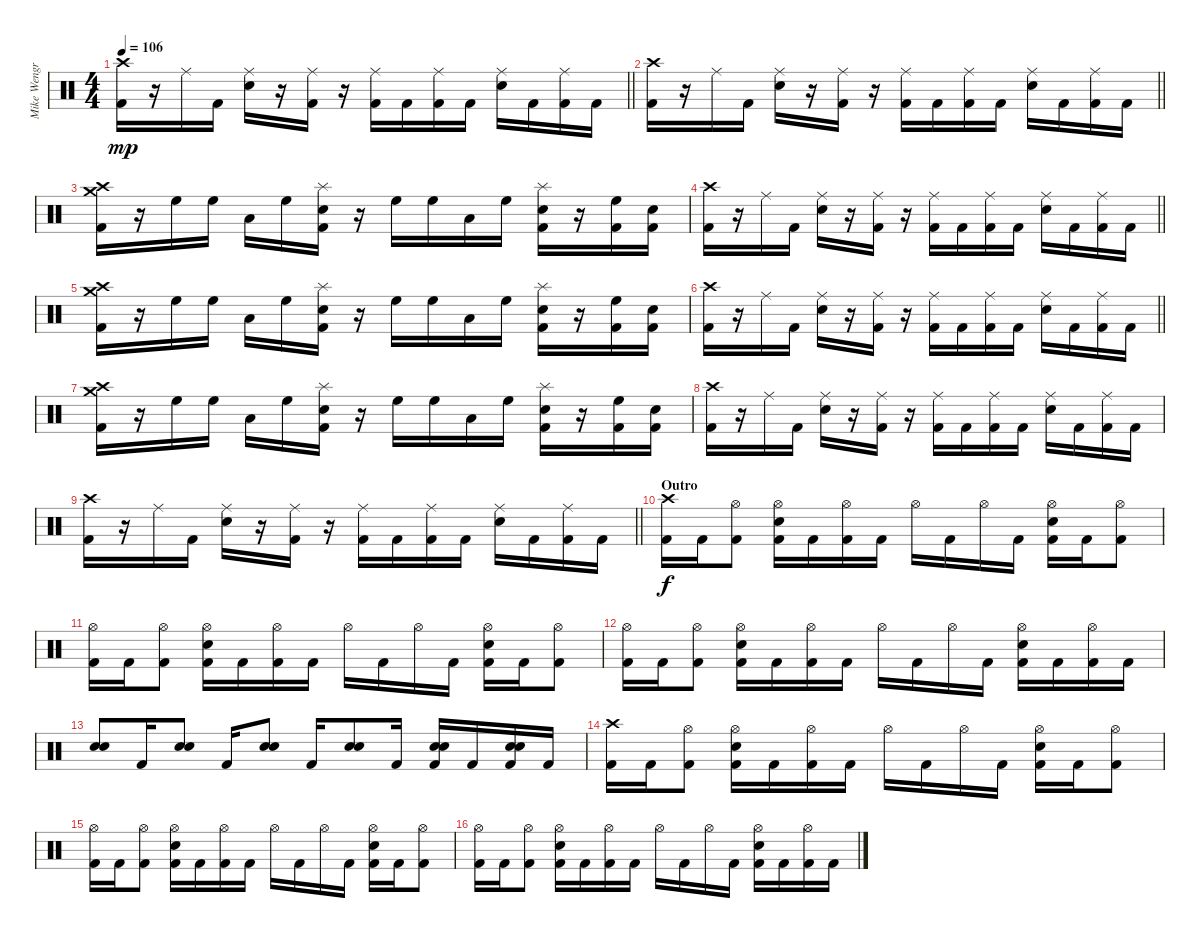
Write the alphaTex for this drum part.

\track ("Mike Wengren" "Mike Wengr") {instrument percussion}
\staff {score}
\articulation defaults
\ts (4 4)
\tempo 106
\clef neutral
\barLineRight lightlight
\ks c
("Crash high (hit)" "Kick (hit) 2").16{dy mp} r.16 "Ride (middle)".16 "Kick (hit) 2".16 ("Ride (middle)" "Snare (hit) 2").16 r.16 ("Ride (middle)" "Kick (hit) 2").16 r.16 ("Ride (middle)" "Kick (hit) 2").16 "Kick (hit) 2".16 ("Ride (middle)" "Kick (hit) 2").16 "Kick (hit) 2".16 ("Ride (middle)" "Snare (hit) 2").16 "Kick (hit) 2".16 ("Ride (middle)" "Kick (hit) 2").16 "Kick (hit) 2".16 |
\barLineRight lightlight
("Crash high (hit)" "Kick (hit) 2").16 r.16 "Ride (middle)".16 "Kick (hit) 2".16 ("Ride (middle)" "Snare (hit) 2").16 r.16 ("Ride (middle)" "Kick (hit) 2").16 r.16 ("Ride (middle)" "Kick (hit) 2").16 "Kick (hit) 2".16 ("Ride (middle)" "Kick (hit) 2").16 "Kick (hit) 2".16 ("Ride (middle)" "Snare (hit) 2").16 "Kick (hit) 2".16 ("Ride (middle)" "Kick (hit) 2").16 "Kick (hit) 2".16 |
("Crash high (hit)" "Crash medium (hit)" "Kick (hit) 2").16 r.16 "High Floor Tom (hit)".16 "High Floor Tom (hit)".16 "Low Tom (hit)".16 "High Floor Tom (hit)".16 ("Snare (hit) 2" "Splash (hit)" "Kick (hit) 2").16 r.16 "High Floor Tom (hit)".16 "High Floor Tom (hit)".16 "Low Tom (hit)".16 "High Floor Tom (hit)".16 ("Snare (hit) 2" "Splash (hit)" "Kick (hit) 2").16 r.16 ("High Floor Tom (hit)" "Kick (hit) 2").16 ("Snare (hit) 2" "Kick (hit) 2").16 |
\barLineRight lightlight
("Crash high (hit)" "Kick (hit) 2").16 r.16 "Ride (middle)".16 "Kick (hit) 2".16 ("Ride (middle)" "Snare (hit) 2").16 r.16 ("Ride (middle)" "Kick (hit) 2").16 r.16 ("Ride (middle)" "Kick (hit) 2").16 "Kick (hit) 2".16 ("Ride (middle)" "Kick (hit) 2").16 "Kick (hit) 2".16 ("Ride (middle)" "Snare (hit) 2").16 "Kick (hit) 2".16 ("Ride (middle)" "Kick (hit) 2").16 "Kick (hit) 2".16 |
("Crash high (hit)" "Crash medium (hit)" "Kick (hit) 2").16 r.16 "High Floor Tom (hit)".16 "High Floor Tom (hit)".16 "Low Tom (hit)".16 "High Floor Tom (hit)".16 ("Snare (hit) 2" "Splash (hit)" "Kick (hit) 2").16 r.16 "High Floor Tom (hit)".16 "High Floor Tom (hit)".16 "Low Tom (hit)".16 "High Floor Tom (hit)".16 ("Snare (hit) 2" "Splash (hit)" "Kick (hit) 2").16 r.16 ("High Floor Tom (hit)" "Kick (hit) 2").16 ("Snare (hit) 2" "Kick (hit) 2").16 |
\barLineRight lightlight
("Crash high (hit)" "Kick (hit) 2").16 r.16 "Ride (middle)".16 "Kick (hit) 2".16 ("Ride (middle)" "Snare (hit) 2").16 r.16 ("Ride (middle)" "Kick (hit) 2").16 r.16 ("Ride (middle)" "Kick (hit) 2").16 "Kick (hit) 2".16 ("Ride (middle)" "Kick (hit) 2").16 "Kick (hit) 2".16 ("Ride (middle)" "Snare (hit) 2").16 "Kick (hit) 2".16 ("Ride (middle)" "Kick (hit) 2").16 "Kick (hit) 2".16 |
("Crash high (hit)" "Crash medium (hit)" "Kick (hit) 2").16 r.16 "High Floor Tom (hit)".16 "High Floor Tom (hit)".16 "Low Tom (hit)".16 "High Floor Tom (hit)".16 ("Snare (hit) 2" "Splash (hit)" "Kick (hit) 2").16 r.16 "High Floor Tom (hit)".16 "High Floor Tom (hit)".16 "Low Tom (hit)".16 "High Floor Tom (hit)".16 ("Snare (hit) 2" "Splash (hit)" "Kick (hit) 2").16 r.16 ("High Floor Tom (hit)" "Kick (hit) 2").16 ("Snare (hit) 2" "Kick (hit) 2").16 |
("Crash high (hit)" "Kick (hit) 2").16 r.16 "Ride (middle)".16 "Kick (hit) 2".16 ("Ride (middle)" "Snare (hit) 2").16 r.16 ("Ride (middle)" "Kick (hit) 2").16 r.16 ("Ride (middle)" "Kick (hit) 2").16 "Kick (hit) 2".16 ("Ride (middle)" "Kick (hit) 2").16 "Kick (hit) 2".16 ("Ride (middle)" "Snare (hit) 2").16 "Kick (hit) 2".16 ("Ride (middle)" "Kick (hit) 2").16 "Kick (hit) 2".16 |
\barLineRight lightlight
("Crash high (hit)" "Kick (hit) 2").16 r.16 "Ride (middle)".16 "Kick (hit) 2".16 ("Ride (middle)" "Snare (hit) 2").16 r.16 ("Ride (middle)" "Kick (hit) 2").16 r.16 ("Ride (middle)" "Kick (hit) 2").16 "Kick (hit) 2".16 ("Ride (middle)" "Kick (hit) 2").16 "Kick (hit) 2".16 ("Ride (middle)" "Snare (hit) 2").16 "Kick (hit) 2".16 ("Ride (middle)" "Kick (hit) 2").16 "Kick (hit) 2".16 |
\section ("" "Outro")
("Crash high (hit)" "Kick (hit) 2").16{dy f} "Kick (hit) 2".16 ("Hi-Hat (open)" "Kick (hit) 2").8 ("Hi-Hat (open)" "Snare (hit) 2" "Kick (hit) 2").16 "Kick (hit) 2".16 ("Hi-Hat (open)" "Kick (hit) 2").16 "Kick (hit) 2".16 "Hi-Hat (open)".16 "Kick (hit) 2".16 "Hi-Hat (open)".16 "Kick (hit) 2".16 ("Hi-Hat (open)" "Snare (hit) 2" "Kick (hit) 2").16 "Kick (hit) 2".16 ("Hi-Hat (open)" "Kick (hit) 2").8 |
("Hi-Hat (open)" "Kick (hit) 2").16 "Kick (hit) 2".16 ("Hi-Hat (open)" "Kick (hit) 2").8 ("Hi-Hat (open)" "Snare (hit) 2" "Kick (hit) 2").16 "Kick (hit) 2".16 ("Hi-Hat (open)" "Kick (hit) 2").16 "Kick (hit) 2".16 "Hi-Hat (open)".16 "Kick (hit) 2".16 "Hi-Hat (open)".16 "Kick (hit) 2".16 ("Hi-Hat (open)" "Snare (hit) 2" "Kick (hit) 2").16 "Kick (hit) 2".16 ("Hi-Hat (open)" "Kick (hit) 2").8 |
("Hi-Hat (open)" "Kick (hit) 2").16 "Kick (hit) 2".16 ("Hi-Hat (open)" "Kick (hit) 2").8 ("Hi-Hat (open)" "Snare (hit) 2" "Kick (hit) 2").16 "Kick (hit) 2".16 ("Hi-Hat (open)" "Kick (hit) 2").16 "Kick (hit) 2".16 "Hi-Hat (open)".16 "Kick (hit) 2".16 "Hi-Hat (open)".16 "Kick (hit) 2".16 ("Hi-Hat (open)" "Snare (hit) 2" "Kick (hit) 2").16 "Kick (hit) 2".16 ("Hi-Hat (open)" "Kick (hit) 2").16 "Kick (hit) 2".16 |
("Snare (hit) 2" "Snare (hit) 2").8 "Kick (hit) 2".16 ("Snare (hit) 2" "Snare (hit) 2").8 "Kick (hit) 2".16 ("Snare (hit) 2" "Snare (hit) 2").8 "Kick (hit) 2".16 ("Snare (hit) 2" "Snare (hit) 2").8 "Kick (hit) 2".16 ("Snare (hit) 2" "Snare (hit) 2" "Kick (hit) 2").16 "Kick (hit) 2".16 ("Snare (hit) 2" "Snare (hit) 2" "Kick (hit) 2").16 "Kick (hit) 2".16 |
("Crash high (hit)" "Kick (hit) 2").16 "Kick (hit) 2".16 ("Hi-Hat (open)" "Kick (hit) 2").8 ("Hi-Hat (open)" "Snare (hit) 2" "Kick (hit) 2").16 "Kick (hit) 2".16 ("Hi-Hat (open)" "Kick (hit) 2").16 "Kick (hit) 2".16 "Hi-Hat (open)".16 "Kick (hit) 2".16 "Hi-Hat (open)".16 "Kick (hit) 2".16 ("Hi-Hat (open)" "Snare (hit) 2" "Kick (hit) 2").16 "Kick (hit) 2".16 ("Hi-Hat (open)" "Kick (hit) 2").8 |
("Hi-Hat (open)" "Kick (hit) 2").16 "Kick (hit) 2".16 ("Hi-Hat (open)" "Kick (hit) 2").8 ("Hi-Hat (open)" "Snare (hit) 2" "Kick (hit) 2").16 "Kick (hit) 2".16 ("Hi-Hat (open)" "Kick (hit) 2").16 "Kick (hit) 2".16 "Hi-Hat (open)".16 "Kick (hit) 2".16 "Hi-Hat (open)".16 "Kick (hit) 2".16 ("Hi-Hat (open)" "Snare (hit) 2" "Kick (hit) 2").16 "Kick (hit) 2".16 ("Hi-Hat (open)" "Kick (hit) 2").8 |
("Hi-Hat (open)" "Kick (hit) 2").16 "Kick (hit) 2".16 ("Hi-Hat (open)" "Kick (hit) 2").8 ("Hi-Hat (open)" "Snare (hit) 2" "Kick (hit) 2").16 "Kick (hit) 2".16 ("Hi-Hat (open)" "Kick (hit) 2").16 "Kick (hit) 2".16 "Hi-Hat (open)".16 "Kick (hit) 2".16 "Hi-Hat (open)".16 "Kick (hit) 2".16 ("Hi-Hat (open)" "Snare (hit) 2" "Kick (hit) 2").16 "Kick (hit) 2".16 ("Hi-Hat (open)" "Kick (hit) 2").16 "Kick (hit) 2".16
